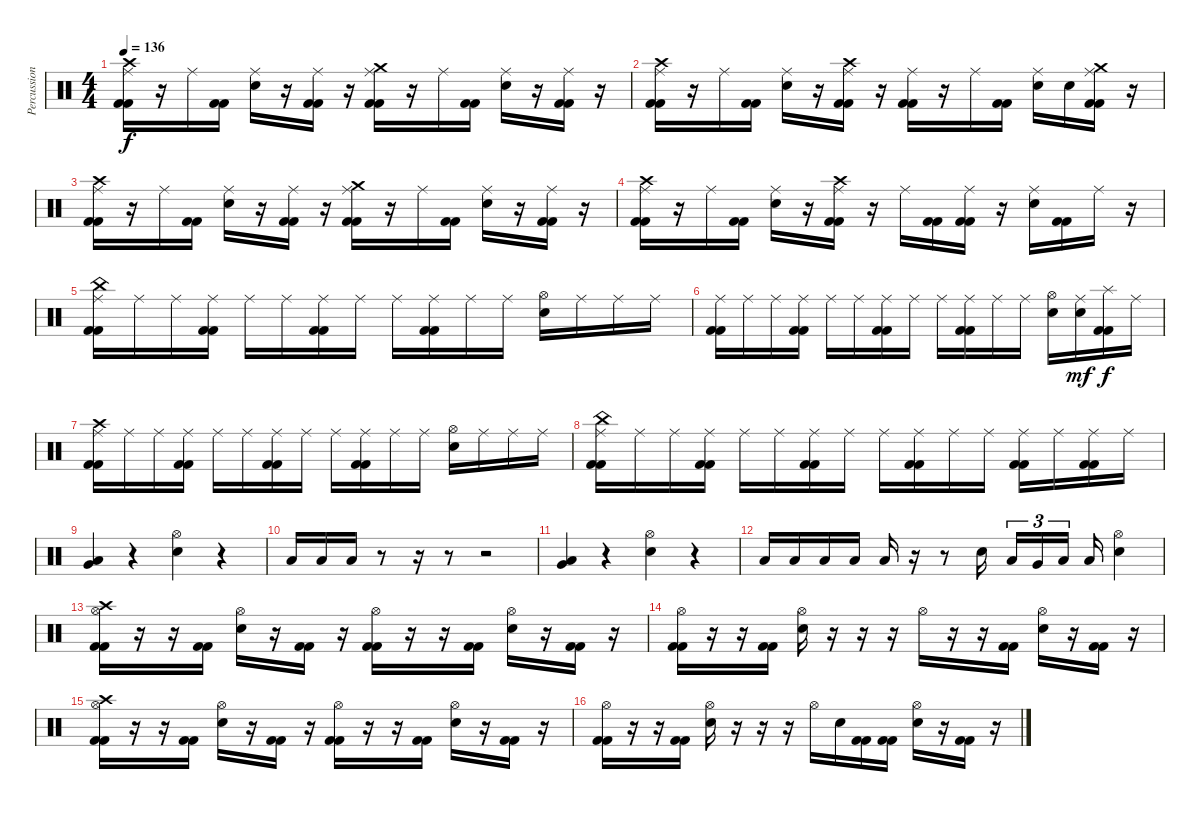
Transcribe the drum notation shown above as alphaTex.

\track ("Percussion" "Percussion") {instrument percussion}
\staff {score}
\articulation defaults
\ts (4 4)
\tempo 136
\clef neutral
\ks c
("Ride (middle)" "Crash high (hit)" "Kick (hit) 2" "Kick (hit) 2").16{dy f} r.16 "Ride (middle)".16 ("Kick (hit) 2" "Kick (hit) 2").16 ("Ride (middle)" "Electric Snare (hit)").16 r.16 ("Ride (middle)" "Kick (hit) 2" "Kick (hit) 2").16 r.16 ("Ride (middle)" "Crash medium (hit)" "Kick (hit) 2" "Kick (hit) 2").16 r.16 "Ride (middle)".16 ("Kick (hit) 2" "Kick (hit) 2").16 ("Ride (middle)" "Electric Snare (hit)").16 r.16 ("Ride (middle)" "Kick (hit) 2" "Kick (hit) 2").16 r.16 |
("Ride (middle)" "Crash high (hit)" "Kick (hit) 2" "Kick (hit) 2").16 r.16 "Ride (middle)".16 ("Kick (hit) 2" "Kick (hit) 2").16 ("Ride (middle)" "Electric Snare (hit)").16 r.16 ("Ride (middle)" "Crash high (hit)" "Kick (hit) 2" "Kick (hit) 2").16 r.16 ("Ride (middle)" "Kick (hit) 2" "Kick (hit) 2").16 r.16 "Ride (middle)".16 ("Kick (hit) 2" "Kick (hit) 2").16 ("Ride (middle)" "Electric Snare (hit)").16 "Electric Snare (hit)".16 ("Ride (middle)" "Crash medium (hit)" "Kick (hit) 2" "Kick (hit) 2").16 r.16 |
("Ride (middle)" "Crash high (hit)" "Kick (hit) 2" "Kick (hit) 2").16 r.16 "Ride (middle)".16 ("Kick (hit) 2" "Kick (hit) 2").16 ("Ride (middle)" "Electric Snare (hit)").16 r.16 ("Ride (middle)" "Kick (hit) 2" "Kick (hit) 2").16 r.16 ("Ride (middle)" "Crash medium (hit)" "Kick (hit) 2" "Kick (hit) 2").16 r.16 "Ride (middle)".16 ("Kick (hit) 2" "Kick (hit) 2").16 ("Ride (middle)" "Electric Snare (hit)").16 r.16 ("Ride (middle)" "Kick (hit) 2" "Kick (hit) 2").16 r.16 |
("Ride (middle)" "Crash high (hit)" "Kick (hit) 2" "Kick (hit) 2").16 r.16 "Ride (middle)".16 ("Kick (hit) 2" "Kick (hit) 2").16 ("Ride (middle)" "Electric Snare (hit)").16 r.16 ("Ride (middle)" "Crash high (hit)" "Kick (hit) 2" "Kick (hit) 2").16 r.16 "Ride (middle)".16 ("Kick (hit) 2" "Kick (hit) 2").16 ("Ride (middle)" "Kick (hit) 2" "Kick (hit) 2").16 r.16 ("Ride (middle)" "Electric Snare (hit)").16 ("Kick (hit) 2" "Kick (hit) 2").16 "Ride (middle)".16 r.16 |
("Ride (middle)" "China (hit)" "Kick (hit) 2" "Kick (hit) 2").16 "Ride (middle)".16 "Ride (middle)".16 ("Ride (middle)" "Kick (hit) 2" "Kick (hit) 2").16 "Ride (middle)".16 "Ride (middle)".16 ("Ride (middle)" "Kick (hit) 2" "Kick (hit) 2").16 "Ride (middle)".16 "Ride (middle)".16 ("Ride (middle)" "Kick (hit) 2" "Kick (hit) 2").16 "Ride (middle)".16 "Ride (middle)".16 ("Hi-Hat (open)" "Electric Snare (hit)").16 "Ride (middle)".16 "Ride (middle)".16 "Ride (middle)".16 |
("Ride (middle)" "Kick (hit) 2" "Kick (hit) 2").16 "Ride (middle)".16 "Ride (middle)".16 ("Ride (middle)" "Kick (hit) 2" "Kick (hit) 2").16 "Ride (middle)".16 "Ride (middle)".16 ("Ride (middle)" "Kick (hit) 2" "Kick (hit) 2").16 "Ride (middle)".16 "Ride (middle)".16 ("Ride (middle)" "Kick (hit) 2" "Kick (hit) 2").16 "Ride (middle)".16 "Ride (middle)".16 ("Hi-Hat (open)" "Electric Snare (hit)").16 ("Ride (middle)" "Electric Snare (hit)").16{dy mf} ("Splash (hit)" "Kick (hit) 2" "Kick (hit) 2").16{dy f} "Ride (middle)".16 |
("Ride (middle)" "Crash high (hit)" "Kick (hit) 2" "Kick (hit) 2").16 "Ride (middle)".16 "Ride (middle)".16 ("Ride (middle)" "Kick (hit) 2" "Kick (hit) 2").16 "Ride (middle)".16 "Ride (middle)".16 ("Ride (middle)" "Kick (hit) 2" "Kick (hit) 2").16 "Ride (middle)".16 "Ride (middle)".16 ("Ride (middle)" "Kick (hit) 2" "Kick (hit) 2").16 "Ride (middle)".16 "Ride (middle)".16 ("Hi-Hat (open)" "Electric Snare (hit)").16 "Ride (middle)".16 "Ride (middle)".16 "Ride (middle)".16 |
("Ride (middle)" "China (hit)" "Kick (hit) 2" "Kick (hit) 2").16 "Ride (middle)".16 "Ride (middle)".16 ("Ride (middle)" "Kick (hit) 2" "Kick (hit) 2").16 "Ride (middle)".16 "Ride (middle)".16 ("Ride (middle)" "Kick (hit) 2" "Kick (hit) 2").16 "Ride (middle)".16 "Ride (middle)".16 ("Ride (middle)" "Kick (hit) 2" "Kick (hit) 2").16 "Ride (middle)".16 "Ride (middle)".16 ("Ride (middle)" "Kick (hit) 2" "Kick (hit) 2").16 "Ride (middle)".16 ("Ride (middle)" "Kick (hit) 2" "Kick (hit) 2").16 "Ride (middle)".16 |
("Low Floor Tom (hit)" "Very Low Tom (hit)").4 r.4 ("Hi-Hat (open)" "Electric Snare (hit)").4 r.4 |
"Low Tom (hit)".16 "Low Tom (hit)".16 "Low Tom (hit)".16 r.8 r.16 r.8 r.2 |
("Low Floor Tom (hit)" "Very Low Tom (hit)").4 r.4 ("Hi-Hat (open)" "Electric Snare (hit)").4 r.4 |
"Low Tom (hit)".16 "Low Tom (hit)".16 "Low Tom (hit)".16 "Low Tom (hit)".16 "Low Tom (hit)".16 r.16 r.8 "Electric Snare (hit)".16 "Low Tom (hit)".16{tu (3 2)} "Very Low Tom (hit)".16{tu (3 2)} "Low Floor Tom (hit)".16{tu (3 2)} "Low Floor Tom (hit)".16 ("Hi-Hat (open)" "Electric Snare (hit)").4 |
("Hi-Hat (open)" "Crash high (hit)" "Kick (hit) 2" "Kick (hit) 2").16 r.16 r.16 ("Kick (hit) 2" "Kick (hit) 2").16 ("Hi-Hat (open)" "Electric Snare (hit)").16 r.16 ("Kick (hit) 2" "Kick (hit) 2").16 r.16 ("Hi-Hat (open)" "Kick (hit) 2" "Kick (hit) 2").16 r.16 r.16 ("Kick (hit) 2" "Kick (hit) 2").16 ("Hi-Hat (open)" "Electric Snare (hit)").16 r.16 ("Kick (hit) 2" "Kick (hit) 2").16 r.16 |
("Hi-Hat (open)" "Kick (hit) 2" "Kick (hit) 2").16 r.16 r.16 ("Kick (hit) 2" "Kick (hit) 2").16 ("Hi-Hat (open)" "Electric Snare (hit)").16 r.16 r.16 r.16 "Hi-Hat (open)".16 r.16 r.16 ("Kick (hit) 2" "Kick (hit) 2").16 ("Hi-Hat (open)" "Electric Snare (hit)").16 r.16 ("Kick (hit) 2" "Kick (hit) 2").16 r.16 |
("Hi-Hat (open)" "Crash high (hit)" "Kick (hit) 2" "Kick (hit) 2").16 r.16 r.16 ("Kick (hit) 2" "Kick (hit) 2").16 ("Hi-Hat (open)" "Electric Snare (hit)").16 r.16 ("Kick (hit) 2" "Kick (hit) 2").16 r.16 ("Hi-Hat (open)" "Kick (hit) 2" "Kick (hit) 2").16 r.16 r.16 ("Kick (hit) 2" "Kick (hit) 2").16 ("Hi-Hat (open)" "Electric Snare (hit)").16 r.16 ("Kick (hit) 2" "Kick (hit) 2").16 r.16 |
("Hi-Hat (open)" "Kick (hit) 2" "Kick (hit) 2").16 r.16 r.16 ("Kick (hit) 2" "Kick (hit) 2").16 ("Hi-Hat (open)" "Electric Snare (hit)").16 r.16 r.16 r.16 "Hi-Hat (open)".16 "Electric Snare (hit)".16 ("Kick (hit) 2" "Kick (hit) 2").16 ("Kick (hit) 2" "Kick (hit) 2").16 ("Hi-Hat (open)" "Electric Snare (hit)").16 r.16 ("Kick (hit) 2" "Kick (hit) 2").16 r.16
